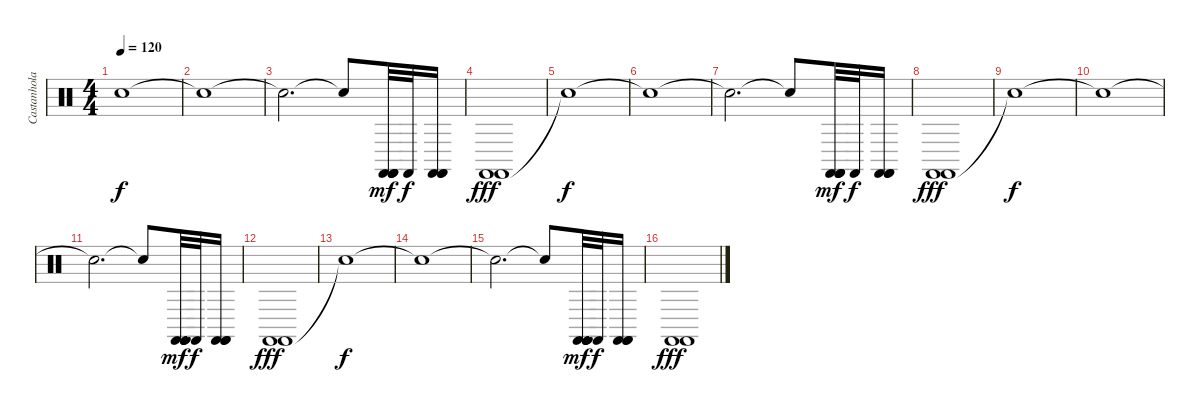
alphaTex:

\track ("Castanholas etc. ïåğêóññèÿ" "Castanhola") {instrument percussion}
\staff {score}
\articulation defaults
\ts (4 4)
\tempo 120
\clef neutral
\ks c "Snare (hit)"{t}.1{dy f}
|
"Snare (hit)"{t}.1 |
"Snare (hit)"{t}.2{d} "Snare (hit)"{t}.8 ("Castanets (hit)" "Castanets (hit)" "Castanets (hit)" "Castanets (hit)").32{dy mf} "Castanets (hit)".32{dy f} ("Castanets (hit)" "Castanets (hit)" "Castanets (hit)").16 |
("Castanets (hit)" "Castanets (hit)").1{dy fff} |
"Snare (hit)"{t}.1{dy f} |
"Snare (hit)"{t}.1 |
"Snare (hit)"{t}.2{d} "Snare (hit)"{t}.8 ("Castanets (hit)" "Castanets (hit)" "Castanets (hit)" "Castanets (hit)").32{dy mf} "Castanets (hit)".32{dy f} ("Castanets (hit)" "Castanets (hit)" "Castanets (hit)").16 |
("Castanets (hit)" "Castanets (hit)").1{dy fff} |
"Snare (hit)"{t}.1{dy f} |
"Snare (hit)"{t}.1 |
"Snare (hit)"{t}.2{d} "Snare (hit)"{t}.8 ("Castanets (hit)" "Castanets (hit)" "Castanets (hit)" "Castanets (hit)").32{dy mf} "Castanets (hit)".32{dy f} ("Castanets (hit)" "Castanets (hit)" "Castanets (hit)").16 |
("Castanets (hit)" "Castanets (hit)").1{dy fff} |
"Snare (hit)"{t}.1{dy f} |
"Snare (hit)"{t}.1 |
"Snare (hit)"{t}.2{d} "Snare (hit)"{t}.8 ("Castanets (hit)" "Castanets (hit)" "Castanets (hit)" "Castanets (hit)").32{dy mf} "Castanets (hit)".32{dy f} ("Castanets (hit)" "Castanets (hit)" "Castanets (hit)").16 |
("Castanets (hit)" "Castanets (hit)").1{dy fff}
